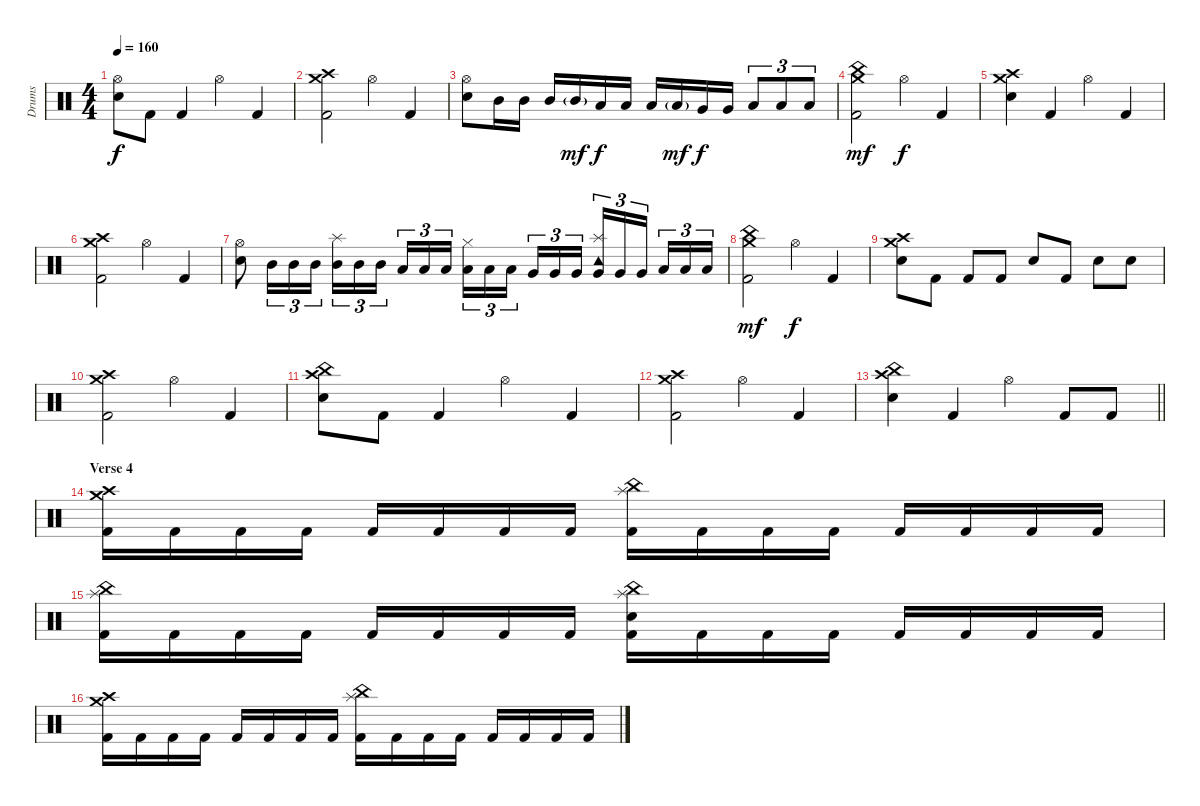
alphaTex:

\track ("Drums" "Drums") {instrument percussion}
\staff {score}
\articulation defaults
\ts (4 4)
\tempo 160
\clef neutral
\ks c
("Hi-Hat (open)" "Electric Snare (hit)").8{dy f} "Kick (hit) 2".8 "Kick (hit) 2".4 "Hi-Hat (open)".4 "Kick (hit) 2".4 |
("Crash high (hit)" "Crash medium (hit)" "Kick (hit) 2").2 "Hi-Hat (open)".4 "Kick (hit) 2".4 |
("Hi-Hat (open)" "Electric Snare (hit)").8 "Mid Tom (hit)".16 "Mid Tom (hit)".16 "Mid Tom (hit)".16 "Mid Tom (hit)"{g}.16{dy mf} "Low Tom (hit)".16{dy f} "Low Tom (hit)".16 "Low Tom (hit)".16 "Low Tom (hit)"{g}.16{dy mf} "Very Low Tom (hit)".16{dy f} "Very Low Tom (hit)".16 "Low Floor Tom (hit)".8{tu (3 2)} "Low Floor Tom (hit)".8{tu (3 2)} "Low Floor Tom (hit)".8{tu (3 2)} |
("China (hit)" "Crash medium (hit)" "Kick (hit) 2").2{dy mf} "Hi-Hat (open)".4{dy f} "Kick (hit) 2".4 |
("Crash high (hit)" "Crash medium (hit)" "Electric Snare (hit)").4 "Kick (hit) 2".4 "Hi-Hat (open)".4 "Kick (hit) 2".4 |
("Crash high (hit)" "Crash medium (hit)" "Kick (hit) 2").2 "Hi-Hat (open)".4 "Kick (hit) 2".4 |
("Hi-Hat (open)" "Electric Snare (hit)").8 "Mid Tom (hit)".16{tu (3 2)} "Mid Tom (hit)".16{tu (3 2)} "Mid Tom (hit)".16{tu (3 2)} ("Splash (hit)" "Mid Tom (hit)").16{tu (3 2)} "Mid Tom (hit)".16{tu (3 2)} "Mid Tom (hit)".16{tu (3 2) beam splitsecondary} "Low Tom (hit)".16{tu (3 2)} "Low Tom (hit)".16{tu (3 2)} "Low Tom (hit)".16{tu (3 2)} ("Hi-Hat (closed)" "Low Tom (hit)").16{tu (3 2)} "Low Tom (hit)".16{tu (3 2)} "Low Tom (hit)".16{tu (3 2) beam splitsecondary} "Very Low Tom (hit)".16{tu (3 2)} "Very Low Tom (hit)".16{tu (3 2)} "Very Low Tom (hit)".16{tu (3 2)} ("Tambourine (hit)" "Splash (hit)" "Very Low Tom (hit)").16{tu (3 2)} "Very Low Tom (hit)".16{tu (3 2)} "Very Low Tom (hit)".16{tu (3 2) beam splitsecondary} "Low Floor Tom (hit)".16{tu (3 2)} "Low Floor Tom (hit)".16{tu (3 2)} "Low Floor Tom (hit)".16{tu (3 2)} |
("China (hit)" "Crash medium (hit)" "Kick (hit) 2").2{dy mf} "Hi-Hat (open)".4{dy f} "Kick (hit) 2".4 |
("Crash high (hit)" "Crash medium (hit)" "Electric Snare (hit)").8 "Kick (hit) 2".8 "Kick (hit) 2".8 "Kick (hit) 2".8 "Electric Snare (hit)".8 "Kick (hit) 2".8 "Electric Snare (hit)".8 "Electric Snare (hit)".8 |
("Crash high (hit)" "Crash medium (hit)" "Kick (hit) 2").2 "Hi-Hat (open)".4 "Kick (hit) 2".4 |
("Crash high (hit)" "China (hit)" "Electric Snare (hit)").8 "Kick (hit) 2".8 "Kick (hit) 2".4 "Hi-Hat (open)".4 "Kick (hit) 2".4 |
("Crash high (hit)" "Crash medium (hit)" "Kick (hit) 2").2 "Hi-Hat (open)".4 "Kick (hit) 2".4 |
\barLineRight lightlight
("Crash high (hit)" "China (hit)" "Electric Snare (hit)").4 "Kick (hit) 2".4 "Hi-Hat (open)".4 "Kick (hit) 2".8 "Kick (hit) 2".8 |
\section ("" "Verse 4")
("Crash high (hit)" "Crash medium (hit)" "Kick (hit) 2").16 "Kick (hit) 2".16 "Kick (hit) 2".16 "Kick (hit) 2".16 "Kick (hit) 2".16 "Kick (hit) 2".16 "Kick (hit) 2".16 "Kick (hit) 2".16 ("China (hit)" "Splash (hit)" "Kick (hit) 2").16 "Kick (hit) 2".16 "Kick (hit) 2".16 "Kick (hit) 2".16 "Kick (hit) 2".16 "Kick (hit) 2".16 "Kick (hit) 2".16 "Kick (hit) 2".16 |
("China (hit)" "Splash (hit)" "Kick (hit) 2").16 "Kick (hit) 2".16 "Kick (hit) 2".16 "Kick (hit) 2".16 "Kick (hit) 2".16 "Kick (hit) 2".16 "Kick (hit) 2".16 "Kick (hit) 2".16 ("China (hit)" "Splash (hit)" "Electric Snare (hit)" "Kick (hit) 2").16 "Kick (hit) 2".16 "Kick (hit) 2".16 "Kick (hit) 2".16 "Kick (hit) 2".16 "Kick (hit) 2".16 "Kick (hit) 2".16 "Kick (hit) 2".16 |
("Crash high (hit)" "Crash medium (hit)" "Kick (hit) 2").16 "Kick (hit) 2".16 "Kick (hit) 2".16 "Kick (hit) 2".16 "Kick (hit) 2".16 "Kick (hit) 2".16 "Kick (hit) 2".16 "Kick (hit) 2".16 ("China (hit)" "Splash (hit)" "Kick (hit) 2").16 "Kick (hit) 2".16 "Kick (hit) 2".16 "Kick (hit) 2".16 "Kick (hit) 2".16 "Kick (hit) 2".16 "Kick (hit) 2".16 "Kick (hit) 2".16
